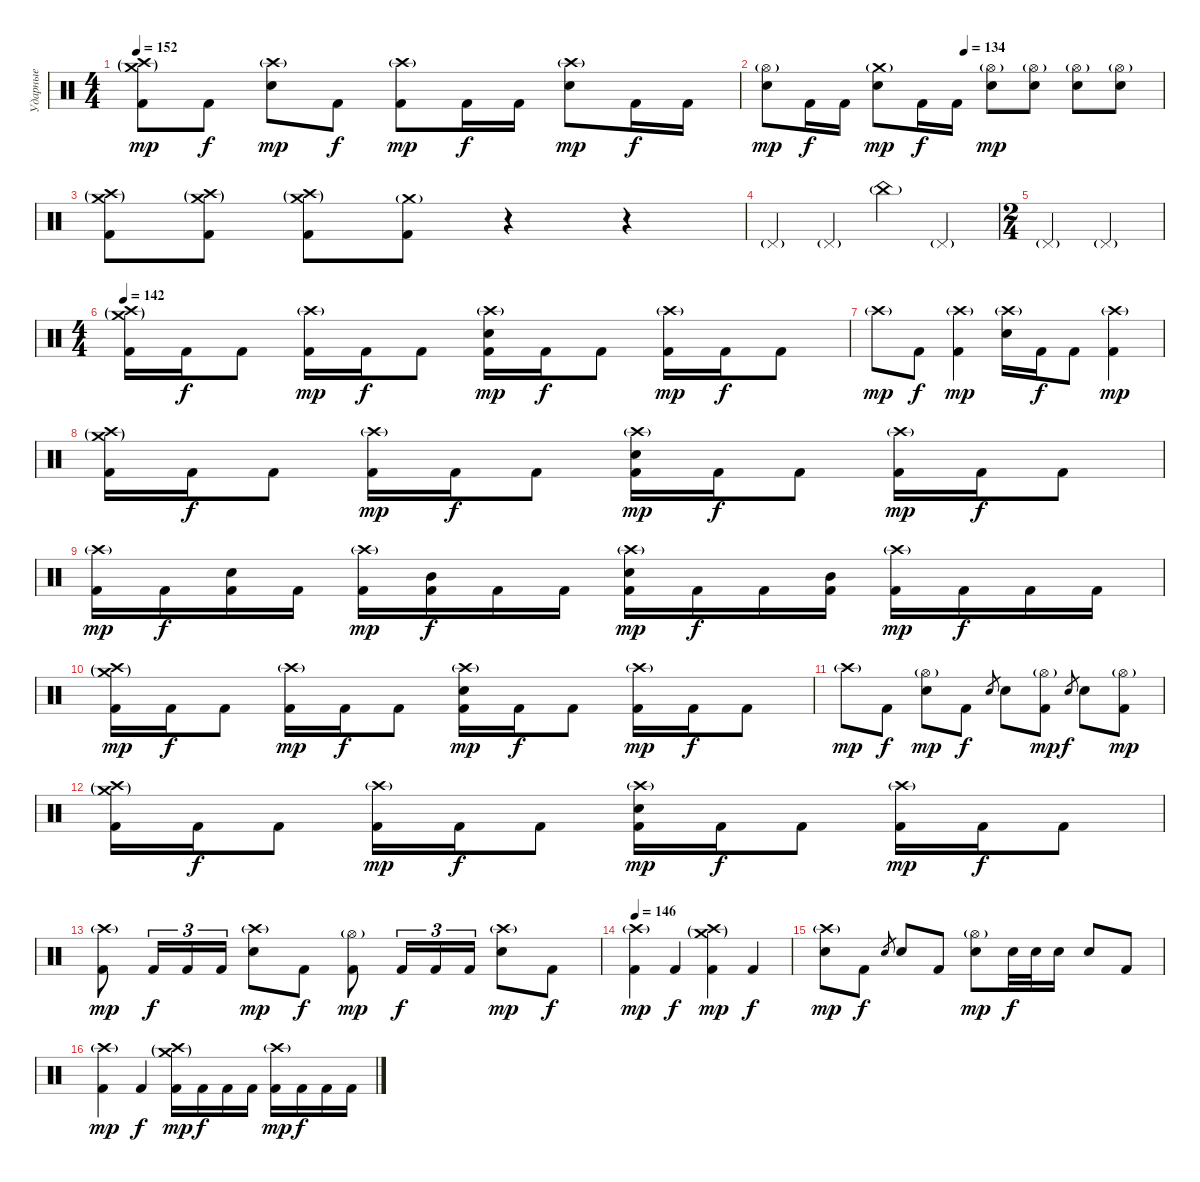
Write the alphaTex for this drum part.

\track ("Ударные" "Ударные") {instrument percussion}
\staff {score}
\articulation defaults
\ts (4 4)
\tempo 152
\clef neutral
\ks c
("Crash high (hit)"{g} "Crash medium (hit)"{g} "Kick (hit) 2").8{dy mp} "Kick (hit) 2".8{dy f} ("Crash high (hit)"{g} "Electric Snare (hit)").8{dy mp} "Kick (hit) 2".8{dy f} ("Crash high (hit)"{g} "Kick (hit) 2").8{dy mp} "Kick (hit) 2".16{dy f} "Kick (hit) 2".16 ("Crash high (hit)"{g} "Electric Snare (hit)").8{dy mp} "Kick (hit) 2".16{dy f} "Kick (hit) 2".16 |
\tempo (138 0.5)
\tempo (134 0.5)
("Hi-Hat (open)"{g} "Electric Snare (hit)").8{dy mp} "Kick (hit) 2".16{dy f} "Kick (hit) 2".16 ("Crash medium (hit)"{g} "Electric Snare (hit)").8{dy mp} "Kick (hit) 2".16{dy f} "Kick (hit) 2".16 ("Hi-Hat (open)"{g} "Electric Snare (hit)").8{dy mp} ("Hi-Hat (open)"{g} "Electric Snare (hit)").8 ("Hi-Hat (open)"{g} "Electric Snare (hit)").8 ("Hi-Hat (open)"{g} "Electric Snare (hit)").8 |
("Crash medium (hit)"{g} "Crash high (hit)"{g} "Kick (hit) 2").8 ("Crash medium (hit)"{g} "Crash high (hit)"{g} "Kick (hit) 2").8 ("Crash medium (hit)"{g} "Crash high (hit)"{g} "Kick (hit) 2").8 ("Crash medium (hit)"{g} "Kick (hit) 2").8 r.4{volume 0} r.4 |
"Pedal Hi-Hat (hit)"{g}.4{volume 16} "Pedal Hi-Hat (hit)"{g}.4 "China (hit)"{g}.4 "Pedal Hi-Hat (hit)"{g}.4 |
\ts (2 4)
"Pedal Hi-Hat (hit)"{g}.4 "Pedal Hi-Hat (hit)"{g}.4 |
\ts (4 4)
\tempo 142
("Crash high (hit)"{g} "Crash medium (hit)"{g} "Kick (hit) 2").16{volume 16} "Kick (hit) 2".16{dy f} "Kick (hit) 2".8 ("Crash high (hit)"{g} "Kick (hit) 2").16{dy mp} "Kick (hit) 2".16{dy f} "Kick (hit) 2".8 ("Crash high (hit)"{g} "Electric Snare (hit)" "Kick (hit) 2").16{dy mp} "Kick (hit) 2".16{dy f} "Kick (hit) 2".8 ("Crash high (hit)"{g} "Kick (hit) 2").16{dy mp} "Kick (hit) 2".16{dy f} "Kick (hit) 2".8 |
"Crash high (hit)"{g}.8{dy mp} "Kick (hit) 2".8{dy f} ("Crash high (hit)"{g} "Kick (hit) 2").4{dy mp} ("Crash high (hit)"{g} "Electric Snare (hit)").16 "Kick (hit) 2".16{dy f} "Kick (hit) 2".8 ("Crash high (hit)"{g} "Kick (hit) 2").4{dy mp} |
("Crash high (hit)"{g} "Crash medium (hit)"{g} "Kick (hit) 2").16 "Kick (hit) 2".16{dy f} "Kick (hit) 2".8 ("Crash high (hit)"{g} "Kick (hit) 2").16{dy mp} "Kick (hit) 2".16{dy f} "Kick (hit) 2".8 ("Crash high (hit)"{g} "Electric Snare (hit)" "Kick (hit) 2").16{dy mp} "Kick (hit) 2".16{dy f} "Kick (hit) 2".8 ("Crash high (hit)"{g} "Kick (hit) 2").16{dy mp} "Kick (hit) 2".16{dy f} "Kick (hit) 2".8 |
("Crash high (hit)"{g} "Kick (hit) 2").16{dy mp} "Kick (hit) 2".16{dy f} ("Electric Snare (hit)" "Kick (hit) 2").16 "Kick (hit) 2".16 ("Crash high (hit)"{g} "Kick (hit) 2").16{dy mp} ("Mid Tom (hit)" "Kick (hit) 2").16{dy f} "Kick (hit) 2".16 "Kick (hit) 2".16 ("Crash high (hit)"{g} "Electric Snare (hit)" "Kick (hit) 2").16{dy mp} "Kick (hit) 2".16{dy f} "Kick (hit) 2".16 ("Mid Tom (hit)" "Kick (hit) 2").16 ("Crash high (hit)"{g} "Kick (hit) 2").16{dy mp} "Kick (hit) 2".16{dy f} "Kick (hit) 2".16 "Kick (hit) 2".16 |
("Crash high (hit)"{g} "Crash medium (hit)"{g} "Kick (hit) 2").16{dy mp} "Kick (hit) 2".16{dy f} "Kick (hit) 2".8 ("Crash high (hit)"{g} "Kick (hit) 2").16{dy mp} "Kick (hit) 2".16{dy f} "Kick (hit) 2".8 ("Crash high (hit)"{g} "Electric Snare (hit)" "Kick (hit) 2").16{dy mp} "Kick (hit) 2".16{dy f} "Kick (hit) 2".8 ("Crash high (hit)"{g} "Kick (hit) 2").16{dy mp} "Kick (hit) 2".16{dy f} "Kick (hit) 2".8 |
"Crash high (hit)"{g}.8{dy mp} "Kick (hit) 2".8{dy f} ("Hi-Hat (open)"{g} "Electric Snare (hit)").8{dy mp} "Kick (hit) 2".8{dy f} "Electric Snare (hit)".8{gr} "Electric Snare (hit)".8 ("Hi-Hat (open)"{g} "Kick (hit) 2").8{dy mp} "Electric Snare (hit)".8{gr dy f} "Electric Snare (hit)".8 ("Hi-Hat (open)"{g} "Kick (hit) 2").8{dy mp} |
("Crash high (hit)"{g} "Crash medium (hit)"{g} "Kick (hit) 2").16 "Kick (hit) 2".16{dy f} "Kick (hit) 2".8 ("Crash high (hit)"{g} "Kick (hit) 2").16{dy mp} "Kick (hit) 2".16{dy f} "Kick (hit) 2".8 ("Crash high (hit)"{g} "Electric Snare (hit)" "Kick (hit) 2").16{dy mp} "Kick (hit) 2".16{dy f} "Kick (hit) 2".8 ("Crash high (hit)"{g} "Kick (hit) 2").16{dy mp} "Kick (hit) 2".16{dy f} "Kick (hit) 2".8 |
("Crash high (hit)"{g} "Kick (hit) 2").8{dy mp} "Kick (hit) 2".16{tu (3 2) dy f} "Kick (hit) 2".16{tu (3 2)} "Kick (hit) 2".16{tu (3 2)} ("Crash high (hit)"{g} "Electric Snare (hit)").8{dy mp} "Kick (hit) 2".8{dy f} ("Hi-Hat (open)"{g} "Kick (hit) 2").8{dy mp} "Kick (hit) 2".16{tu (3 2) dy f} "Kick (hit) 2".16{tu (3 2)} "Kick (hit) 2".16{tu (3 2)} ("Crash high (hit)"{g} "Electric Snare (hit)").8{dy mp} "Kick (hit) 2".8{dy f} |
\tempo 146
("Crash high (hit)"{g} "Kick (hit) 2").4{dy mp} "Kick (hit) 2".4{dy f} ("Crash medium (hit)"{g} "Crash high (hit)"{g} "Kick (hit) 2").4{dy mp} "Kick (hit) 2".4{dy f} |
("Crash high (hit)"{g} "Electric Snare (hit)").8{dy mp} "Kick (hit) 2".8{dy f} "Electric Snare (hit)".8{gr} "Electric Snare (hit)".8 "Kick (hit) 2".8 ("Hi-Hat (open)"{g} "Electric Snare (hit)").8{dy mp} "Electric Snare (hit)".32{dy f} "Electric Snare (hit)".32 "Electric Snare (hit)".16 "Electric Snare (hit)".8 "Kick (hit) 2".8 |
("Crash high (hit)"{g} "Kick (hit) 2").4{dy mp} "Kick (hit) 2".4{dy f} ("Crash high (hit)"{g} "Crash medium (hit)"{g} "Kick (hit) 2").16{dy mp} "Kick (hit) 2".16{dy f} "Kick (hit) 2".16 "Kick (hit) 2".16 ("Crash high (hit)"{g} "Kick (hit) 2").16{dy mp} "Kick (hit) 2".16{dy f} "Kick (hit) 2".16 "Kick (hit) 2".16
